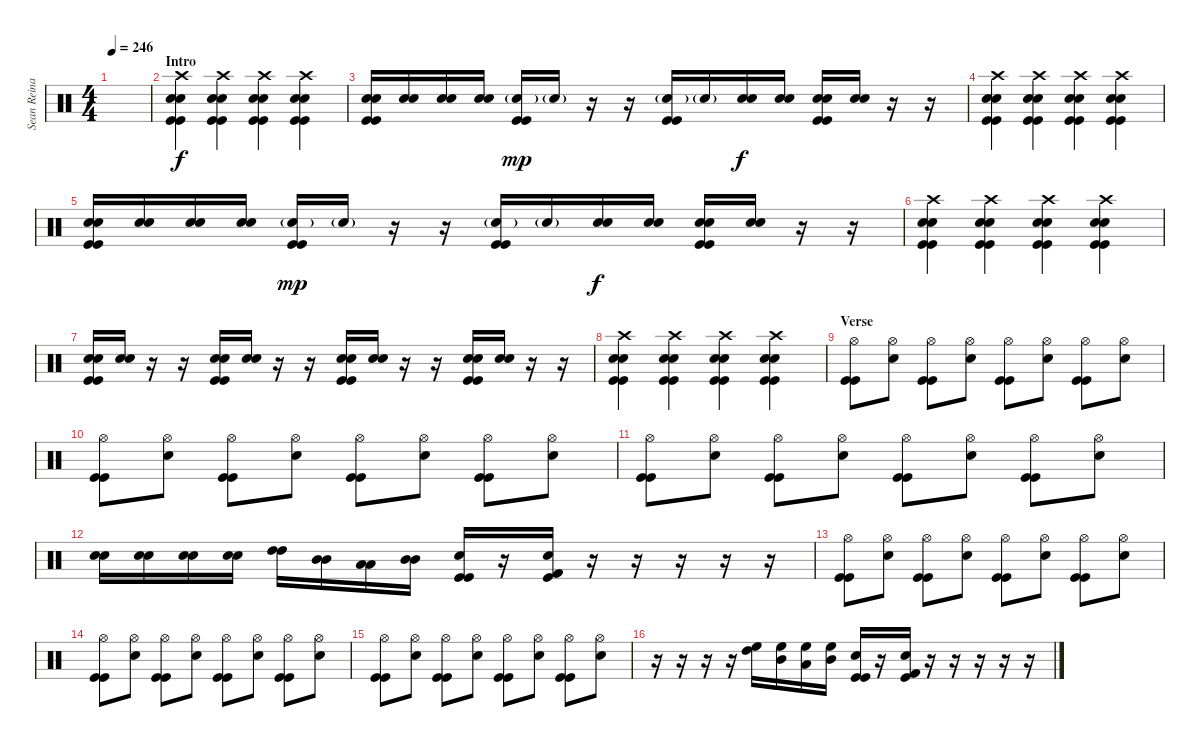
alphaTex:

\track ("Sean Reinart" "Sean Reina") {instrument percussion}
\staff {score}
\articulation defaults
\ts (4 4)
\tempo 246
\clef neutral
\ks c
|
\section ("" "Intro")
("Crash high (hit)" "Snare (hit) 2" "Electric Snare (hit)" "Kick (hit)" "Kick (hit)").4 ("Crash high (hit)" "Snare (hit) 2" "Electric Snare (hit)" "Kick (hit)" "Kick (hit)").4 ("Crash high (hit)" "Snare (hit) 2" "Electric Snare (hit)" "Kick (hit)" "Kick (hit)").4 ("Crash high (hit)" "Snare (hit) 2" "Electric Snare (hit)" "Kick (hit)" "Kick (hit)").4 |
("Snare (hit) 2" "Electric Snare (hit)" "Kick (hit)" "Kick (hit)").16 ("Snare (hit) 2" "Electric Snare (hit)").16 ("Snare (hit) 2" "Electric Snare (hit)").16 ("Snare (hit) 2" "Electric Snare (hit)").16 ("Snare (hit) 2"{g} "Kick (hit)" "Kick (hit)").16{dy mp} "Snare (hit) 2"{g}.16 r.16 r.16 ("Snare (hit) 2"{g} "Kick (hit)" "Kick (hit)").16 "Snare (hit) 2"{g}.16 ("Snare (hit) 2" "Electric Snare (hit)").16{dy f} ("Snare (hit) 2" "Electric Snare (hit)").16 ("Snare (hit) 2" "Electric Snare (hit)" "Kick (hit)" "Kick (hit)").16 ("Snare (hit) 2" "Electric Snare (hit)").16 r.16 r.16 |
("Crash high (hit)" "Snare (hit) 2" "Electric Snare (hit)" "Kick (hit)" "Kick (hit)").4 ("Crash high (hit)" "Snare (hit) 2" "Electric Snare (hit)" "Kick (hit)" "Kick (hit)").4 ("Crash high (hit)" "Snare (hit) 2" "Electric Snare (hit)" "Kick (hit)" "Kick (hit)").4 ("Crash high (hit)" "Snare (hit) 2" "Electric Snare (hit)" "Kick (hit)" "Kick (hit)").4 |
("Snare (hit) 2" "Electric Snare (hit)" "Kick (hit)" "Kick (hit)").16 ("Snare (hit) 2" "Electric Snare (hit)").16 ("Snare (hit) 2" "Electric Snare (hit)").16 ("Snare (hit) 2" "Electric Snare (hit)").16 ("Snare (hit) 2"{g} "Kick (hit)" "Kick (hit)").16{dy mp} "Snare (hit) 2"{g}.16 r.16 r.16 ("Snare (hit) 2"{g} "Kick (hit)" "Kick (hit)").16 "Snare (hit) 2"{g}.16 ("Snare (hit) 2" "Electric Snare (hit)").16{dy f} ("Snare (hit) 2" "Electric Snare (hit)").16 ("Snare (hit) 2" "Electric Snare (hit)" "Kick (hit)" "Kick (hit)").16 ("Snare (hit) 2" "Electric Snare (hit)").16 r.16 r.16 |
("Crash high (hit)" "Snare (hit) 2" "Electric Snare (hit)" "Kick (hit)" "Kick (hit)").4 ("Crash high (hit)" "Snare (hit) 2" "Electric Snare (hit)" "Kick (hit)" "Kick (hit)").4 ("Crash high (hit)" "Snare (hit) 2" "Electric Snare (hit)" "Kick (hit)" "Kick (hit)").4 ("Crash high (hit)" "Snare (hit) 2" "Electric Snare (hit)" "Kick (hit)" "Kick (hit)").4 |
("Snare (hit) 2" "Electric Snare (hit)" "Kick (hit)" "Kick (hit)").16 ("Snare (hit) 2" "Electric Snare (hit)").16 r.16 r.16 ("Snare (hit) 2" "Electric Snare (hit)" "Kick (hit)" "Kick (hit)").16 ("Snare (hit) 2" "Electric Snare (hit)").16 r.16 r.16 ("Snare (hit) 2" "Electric Snare (hit)" "Kick (hit)" "Kick (hit)").16 ("Snare (hit) 2" "Electric Snare (hit)").16 r.16 r.16 ("Snare (hit) 2" "Electric Snare (hit)" "Kick (hit)" "Kick (hit)").16 ("Snare (hit) 2" "Electric Snare (hit)").16 r.16 r.16 |
("Crash high (hit)" "Snare (hit) 2" "Electric Snare (hit)" "Kick (hit)" "Kick (hit)").4 ("Crash high (hit)" "Snare (hit) 2" "Electric Snare (hit)" "Kick (hit)" "Kick (hit)").4 ("Crash high (hit)" "Snare (hit) 2" "Electric Snare (hit)" "Kick (hit)" "Kick (hit)").4 ("Crash high (hit)" "Snare (hit) 2" "Electric Snare (hit)" "Kick (hit)" "Kick (hit)").4 |
\section ("" "Verse")
("Hi-Hat (open)" "Kick (hit)" "Kick (hit)").8 ("Hi-Hat (open)" "Snare (hit) 2").8 ("Hi-Hat (open)" "Kick (hit)" "Kick (hit)").8 ("Hi-Hat (open)" "Snare (hit) 2").8 ("Hi-Hat (open)" "Kick (hit)" "Kick (hit)").8 ("Hi-Hat (open)" "Snare (hit) 2").8 ("Hi-Hat (open)" "Kick (hit)" "Kick (hit)").8 ("Hi-Hat (open)" "Snare (hit) 2").8 |
("Hi-Hat (open)" "Kick (hit)" "Kick (hit)").8 ("Hi-Hat (open)" "Snare (hit) 2").8 ("Hi-Hat (open)" "Kick (hit)" "Kick (hit)").8 ("Hi-Hat (open)" "Snare (hit) 2").8 ("Hi-Hat (open)" "Kick (hit)" "Kick (hit)").8 ("Hi-Hat (open)" "Snare (hit) 2").8 ("Hi-Hat (open)" "Kick (hit)" "Kick (hit)").8 ("Hi-Hat (open)" "Snare (hit) 2").8 |
("Hi-Hat (open)" "Kick (hit)" "Kick (hit)").8 ("Hi-Hat (open)" "Snare (hit) 2").8 ("Hi-Hat (open)" "Kick (hit)" "Kick (hit)").8 ("Hi-Hat (open)" "Snare (hit) 2").8 ("Hi-Hat (open)" "Kick (hit)" "Kick (hit)").8 ("Hi-Hat (open)" "Snare (hit) 2").8 ("Hi-Hat (open)" "Kick (hit)" "Kick (hit)").8 ("Hi-Hat (open)" "Snare (hit) 2").8 |
("Snare (hit) 2" "Electric Snare (hit)").16 ("Snare (hit) 2" "Electric Snare (hit)").16 ("Snare (hit) 2" "Electric Snare (hit)").16 ("Snare (hit) 2" "Electric Snare (hit)").16 ("High Tom (hit)" "High Tom (hit)").16 ("Mid Tom (hit)" "Mid Tom (hit)").16 ("Low Tom (hit)" "Low Tom (hit)").16 ("Mid Tom (hit)" "Mid Tom (hit)").16 ("Snare (hit) 2" "Kick (hit)" "Kick (hit)").16 r.16 ("Snare (hit) 2" "Kick (hit)" "Kick (hit) 2").16 r.16 r.16 r.16 r.16 r.16 |
("Hi-Hat (open)" "Kick (hit)" "Kick (hit)").8 ("Hi-Hat (open)" "Snare (hit) 2").8 ("Hi-Hat (open)" "Kick (hit)" "Kick (hit)").8 ("Hi-Hat (open)" "Snare (hit) 2").8 ("Hi-Hat (open)" "Kick (hit)" "Kick (hit)").8 ("Hi-Hat (open)" "Snare (hit) 2").8 ("Hi-Hat (open)" "Kick (hit)" "Kick (hit)").8 ("Hi-Hat (open)" "Snare (hit) 2").8 |
("Hi-Hat (open)" "Kick (hit)" "Kick (hit)").8 ("Hi-Hat (open)" "Snare (hit) 2").8 ("Hi-Hat (open)" "Kick (hit)" "Kick (hit)").8 ("Hi-Hat (open)" "Snare (hit) 2").8 ("Hi-Hat (open)" "Kick (hit)" "Kick (hit)").8 ("Hi-Hat (open)" "Snare (hit) 2").8 ("Hi-Hat (open)" "Kick (hit)" "Kick (hit)").8 ("Hi-Hat (open)" "Snare (hit) 2").8 |
("Hi-Hat (open)" "Kick (hit)" "Kick (hit)").8 ("Hi-Hat (open)" "Snare (hit) 2").8 ("Hi-Hat (open)" "Kick (hit)" "Kick (hit)").8 ("Hi-Hat (open)" "Snare (hit) 2").8 ("Hi-Hat (open)" "Kick (hit)" "Kick (hit)").8 ("Hi-Hat (open)" "Snare (hit) 2").8 ("Hi-Hat (open)" "Kick (hit)" "Kick (hit)").8 ("Hi-Hat (open)" "Snare (hit) 2").8 |
r.16 r.16 r.16 r.16 ("High Floor Tom (hit)" "High Tom (hit)").16 ("High Floor Tom (hit)" "Mid Tom (hit)").16 ("High Floor Tom (hit)" "Low Tom (hit)").16 ("High Floor Tom (hit)" "Mid Tom (hit)").16 ("Snare (hit) 2" "Kick (hit)" "Kick (hit)").16 r.16 ("Snare (hit) 2" "Kick (hit)" "Kick (hit) 2").16 r.16 r.16 r.16 r.16 r.16
